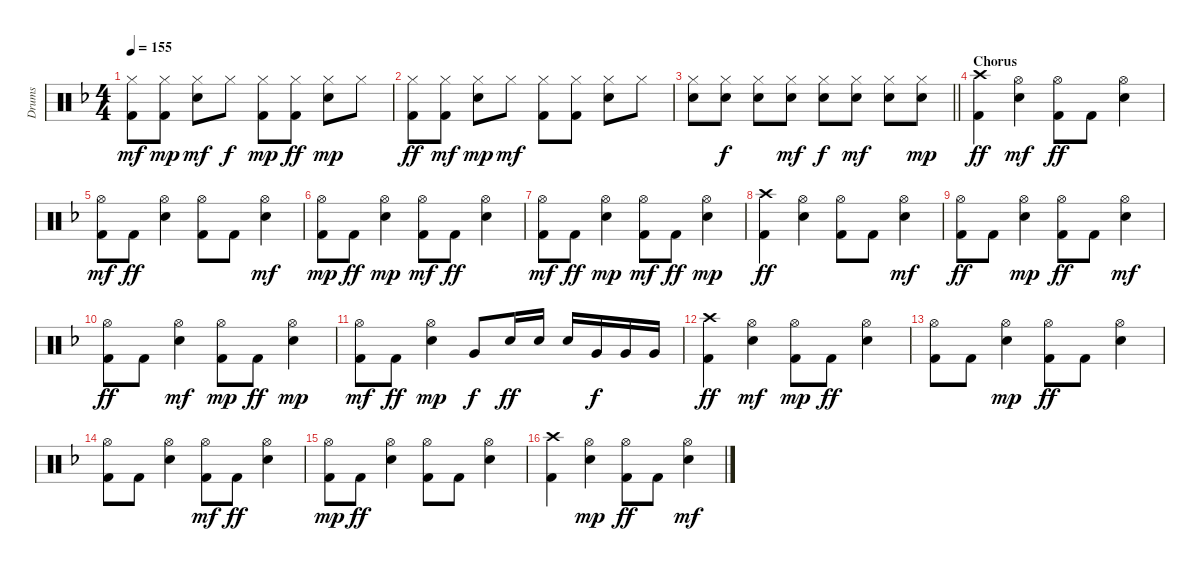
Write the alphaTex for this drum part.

\track ("Drums" "Drums") {instrument percussion}
\staff {score}
\articulation defaults
\ts (4 4)
\tempo 155
\clef neutral
\ks f
("Kick (hit) 2" "Hi-Hat (closed)").8{dy mf} ("Kick (hit) 2" "Hi-Hat (closed)").8{dy mp} ("Snare (hit) 2" "Hi-Hat (closed)").8{dy mf} "Hi-Hat (closed)".8{dy f} ("Kick (hit) 2" "Hi-Hat (closed)").8{dy mp} ("Kick (hit) 2" "Hi-Hat (closed)").8{dy ff} ("Snare (hit) 2" "Hi-Hat (closed)").8{dy mp} "Hi-Hat (closed)".8 |
("Kick (hit) 2" "Hi-Hat (closed)").8{dy ff} ("Kick (hit) 2" "Hi-Hat (closed)").8{dy mf} ("Snare (hit) 2" "Hi-Hat (closed)").8{dy mp} "Hi-Hat (closed)".8{dy mf} ("Kick (hit) 2" "Hi-Hat (closed)").8 ("Kick (hit) 2" "Hi-Hat (closed)").8 ("Snare (hit) 2" "Hi-Hat (closed)").8 "Hi-Hat (closed)".8 |
\barLineRight lightlight
("Snare (hit) 2" "Hi-Hat (closed)").8 ("Snare (hit) 2" "Hi-Hat (closed)").8{dy f} ("Snare (hit) 2" "Hi-Hat (closed)").8 ("Snare (hit) 2" "Hi-Hat (closed)").8{dy mf} ("Snare (hit) 2" "Hi-Hat (closed)").8{dy f} ("Snare (hit) 2" "Hi-Hat (closed)").8{dy mf} ("Snare (hit) 2" "Hi-Hat (closed)").8 ("Snare (hit) 2" "Hi-Hat (closed)").8{dy mp} |
\section ("" "Chorus")
("Kick (hit) 2" "Crash high (hit)").4{dy ff} ("Snare (hit) 2" "Hi-Hat (open)").4{dy mf} ("Kick (hit) 2" "Hi-Hat (open)").8{dy ff} "Kick (hit) 2".8 ("Snare (hit) 2" "Hi-Hat (open)").4 |
("Kick (hit) 2" "Hi-Hat (open)").8{dy mf} "Kick (hit) 2".8{dy ff} ("Snare (hit) 2" "Hi-Hat (open)").4 ("Kick (hit) 2" "Hi-Hat (open)").8 "Kick (hit) 2".8 ("Snare (hit) 2" "Hi-Hat (open)").4{dy mf} |
("Kick (hit) 2" "Hi-Hat (open)").8{dy mp} "Kick (hit) 2".8{dy ff} ("Snare (hit) 2" "Hi-Hat (open)").4{dy mp} ("Kick (hit) 2" "Hi-Hat (open)").8{dy mf} "Kick (hit) 2".8{dy ff} ("Snare (hit) 2" "Hi-Hat (open)").4 |
("Kick (hit) 2" "Hi-Hat (open)").8{dy mf} "Kick (hit) 2".8{dy ff} ("Snare (hit) 2" "Hi-Hat (open)").4{dy mp} ("Kick (hit) 2" "Hi-Hat (open)").8{dy mf} "Kick (hit) 2".8{dy ff} ("Snare (hit) 2" "Hi-Hat (open)").4{dy mp} |
("Kick (hit) 2" "Crash high (hit)").4{dy ff} ("Snare (hit) 2" "Hi-Hat (open)").4 ("Kick (hit) 2" "Hi-Hat (open)").8 "Kick (hit) 2".8 ("Snare (hit) 2" "Hi-Hat (open)").4{dy mf} |
("Kick (hit) 2" "Hi-Hat (open)").8{dy ff} "Kick (hit) 2".8 ("Snare (hit) 2" "Hi-Hat (open)").4{dy mp} ("Kick (hit) 2" "Hi-Hat (open)").8{dy ff} "Kick (hit) 2".8 ("Snare (hit) 2" "Hi-Hat (open)").4{dy mf} |
("Kick (hit) 2" "Hi-Hat (open)").8{dy ff} "Kick (hit) 2".8 ("Snare (hit) 2" "Hi-Hat (open)").4{dy mf} ("Kick (hit) 2" "Hi-Hat (open)").8{dy mp} "Kick (hit) 2".8{dy ff} ("Snare (hit) 2" "Hi-Hat (open)").4{dy mp} |
("Kick (hit) 2" "Hi-Hat (open)").8{dy mf} "Kick (hit) 2".8{dy ff} ("Snare (hit) 2" "Hi-Hat (open)").4{dy mp} "Very Low Tom (hit)".8{dy f} "Snare (hit) 2".16{dy ff} "Snare (hit) 2".16 "Snare (hit) 2".16 "Very Low Tom (hit)".16{dy f} "Very Low Tom (hit)".16 "Very Low Tom (hit)".16 |
("Kick (hit) 2" "Crash high (hit)").4{dy ff} ("Snare (hit) 2" "Hi-Hat (open)").4{dy mf} ("Kick (hit) 2" "Hi-Hat (open)").8{dy mp} "Kick (hit) 2".8{dy ff} ("Snare (hit) 2" "Hi-Hat (open)").4 |
("Kick (hit) 2" "Hi-Hat (open)").8 "Kick (hit) 2".8 ("Snare (hit) 2" "Hi-Hat (open)").4{dy mp} ("Kick (hit) 2" "Hi-Hat (open)").8{dy ff} "Kick (hit) 2".8 ("Snare (hit) 2" "Hi-Hat (open)").4 |
("Kick (hit) 2" "Hi-Hat (open)").8 "Kick (hit) 2".8 ("Snare (hit) 2" "Hi-Hat (open)").4 ("Kick (hit) 2" "Hi-Hat (open)").8{dy mf} "Kick (hit) 2".8{dy ff} ("Snare (hit) 2" "Hi-Hat (open)").4 |
("Kick (hit) 2" "Hi-Hat (open)").8{dy mp} "Kick (hit) 2".8{dy ff} ("Snare (hit) 2" "Hi-Hat (open)").4 ("Kick (hit) 2" "Hi-Hat (open)").8 "Kick (hit) 2".8 ("Snare (hit) 2" "Hi-Hat (open)").4 |
("Kick (hit) 2" "Crash high (hit)").4 ("Snare (hit) 2" "Hi-Hat (open)").4{dy mp} ("Kick (hit) 2" "Hi-Hat (open)").8{dy ff} "Kick (hit) 2".8 ("Snare (hit) 2" "Hi-Hat (open)").4{dy mf}
